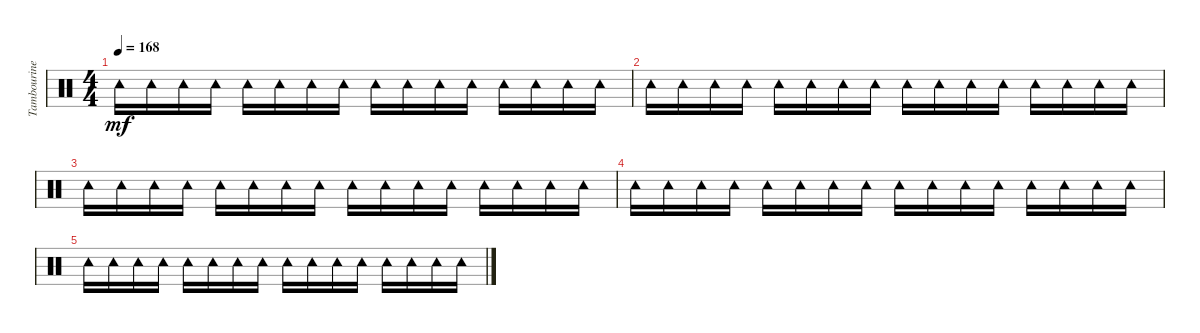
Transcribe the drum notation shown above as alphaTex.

\track ("Tambourine" "Tambourine") {instrument percussion}
\staff {score}
\articulation defaults
\ts (4 4)
\tempo 168
\clef neutral
\ks c "Tambourine (hit)".16{dy mf} "Tambourine (hit)".16 "Tambourine (hit)".16 "Tambourine (hit)".16 "Tambourine (hit)".16 "Tambourine (hit)".16 "Tambourine (hit)".16 "Tambourine (hit)".16 "Tambourine (hit)".16 "Tambourine (hit)".16 "Tambourine (hit)".16 "Tambourine (hit)".16 "Tambourine (hit)".16 "Tambourine (hit)".16 "Tambourine (hit)".16 "Tambourine (hit)".16
|
"Tambourine (hit)".16 "Tambourine (hit)".16 "Tambourine (hit)".16 "Tambourine (hit)".16 "Tambourine (hit)".16 "Tambourine (hit)".16 "Tambourine (hit)".16 "Tambourine (hit)".16 "Tambourine (hit)".16 "Tambourine (hit)".16 "Tambourine (hit)".16 "Tambourine (hit)".16 "Tambourine (hit)".16 "Tambourine (hit)".16 "Tambourine (hit)".16 "Tambourine (hit)".16 |
"Tambourine (hit)".16 "Tambourine (hit)".16 "Tambourine (hit)".16 "Tambourine (hit)".16 "Tambourine (hit)".16 "Tambourine (hit)".16 "Tambourine (hit)".16 "Tambourine (hit)".16 "Tambourine (hit)".16 "Tambourine (hit)".16 "Tambourine (hit)".16 "Tambourine (hit)".16 "Tambourine (hit)".16 "Tambourine (hit)".16 "Tambourine (hit)".16 "Tambourine (hit)".16 |
"Tambourine (hit)".16 "Tambourine (hit)".16 "Tambourine (hit)".16 "Tambourine (hit)".16 "Tambourine (hit)".16 "Tambourine (hit)".16 "Tambourine (hit)".16 "Tambourine (hit)".16 "Tambourine (hit)".16 "Tambourine (hit)".16 "Tambourine (hit)".16 "Tambourine (hit)".16 "Tambourine (hit)".16 "Tambourine (hit)".16 "Tambourine (hit)".16 "Tambourine (hit)".16 |
"Tambourine (hit)".16 "Tambourine (hit)".16 "Tambourine (hit)".16 "Tambourine (hit)".16 "Tambourine (hit)".16 "Tambourine (hit)".16 "Tambourine (hit)".16 "Tambourine (hit)".16 "Tambourine (hit)".16 "Tambourine (hit)".16 "Tambourine (hit)".16 "Tambourine (hit)".16 "Tambourine (hit)".16 "Tambourine (hit)".16 "Tambourine (hit)".16 "Tambourine (hit)".16
